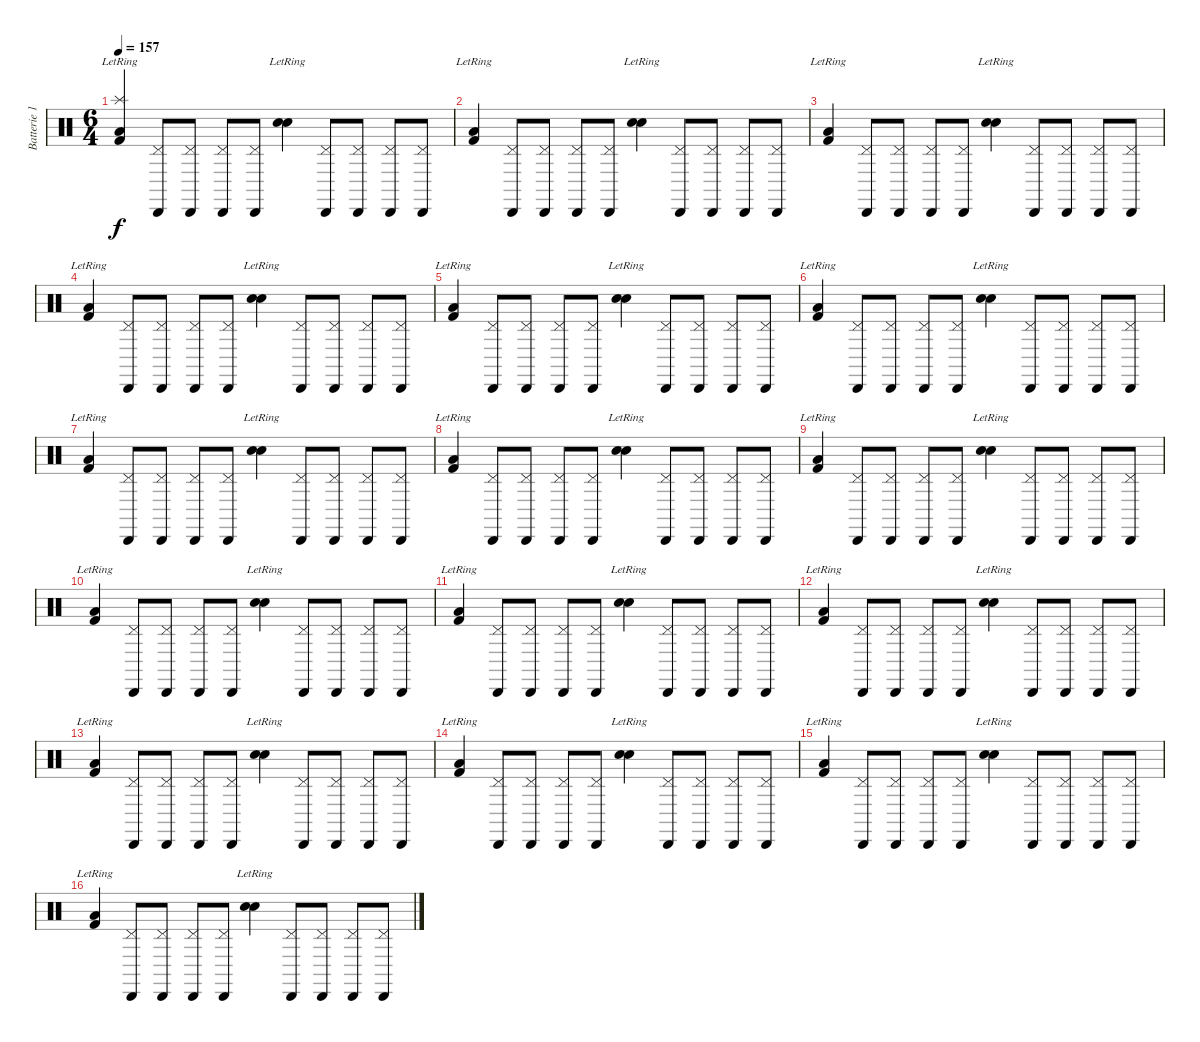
\track ("Batterie 1" "Batterie 1") {instrument percussion}
\staff {score}
\articulation defaults
\ts (6 4)
\tempo 157
\clef neutral
\ks c
("Kick (hit) 2"{lr} "Splash (hit)" "Low Floor Tom (hit)").4{dy f} ("Pedal Hi-Hat (hit)" "Cabasa (hit)").8 ("Pedal Hi-Hat (hit)" "Cabasa (hit)").8 ("Pedal Hi-Hat (hit)" "Cabasa (hit)").8 ("Pedal Hi-Hat (hit)" "Cabasa (hit)").8 ("Snare (hit) 2"{lr} "Electric Snare (hit)").4 ("Pedal Hi-Hat (hit)" "Cabasa (hit)").8 ("Pedal Hi-Hat (hit)" "Cabasa (hit)").8 ("Pedal Hi-Hat (hit)" "Cabasa (hit)").8 ("Pedal Hi-Hat (hit)" "Cabasa (hit)").8 |
("Kick (hit) 2"{lr} "Low Floor Tom (hit)").4 ("Pedal Hi-Hat (hit)" "Cabasa (hit)").8 ("Pedal Hi-Hat (hit)" "Cabasa (hit)").8 ("Pedal Hi-Hat (hit)" "Cabasa (hit)").8 ("Pedal Hi-Hat (hit)" "Cabasa (hit)").8 ("Snare (hit) 2"{lr} "Electric Snare (hit)").4 ("Pedal Hi-Hat (hit)" "Cabasa (hit)").8 ("Pedal Hi-Hat (hit)" "Cabasa (hit)").8 ("Pedal Hi-Hat (hit)" "Cabasa (hit)").8 ("Pedal Hi-Hat (hit)" "Cabasa (hit)").8 |
("Kick (hit) 2"{lr} "Low Floor Tom (hit)").4 ("Pedal Hi-Hat (hit)" "Cabasa (hit)").8 ("Pedal Hi-Hat (hit)" "Cabasa (hit)").8 ("Pedal Hi-Hat (hit)" "Cabasa (hit)").8 ("Pedal Hi-Hat (hit)" "Cabasa (hit)").8 ("Snare (hit) 2"{lr} "Electric Snare (hit)").4 ("Pedal Hi-Hat (hit)" "Cabasa (hit)").8 ("Pedal Hi-Hat (hit)" "Cabasa (hit)").8 ("Pedal Hi-Hat (hit)" "Cabasa (hit)").8 ("Pedal Hi-Hat (hit)" "Cabasa (hit)").8 |
("Kick (hit) 2"{lr} "Low Floor Tom (hit)").4 ("Pedal Hi-Hat (hit)" "Cabasa (hit)").8 ("Pedal Hi-Hat (hit)" "Cabasa (hit)").8 ("Pedal Hi-Hat (hit)" "Cabasa (hit)").8 ("Pedal Hi-Hat (hit)" "Cabasa (hit)").8 ("Snare (hit) 2"{lr} "Electric Snare (hit)").4 ("Pedal Hi-Hat (hit)" "Cabasa (hit)").8 ("Pedal Hi-Hat (hit)" "Cabasa (hit)").8 ("Pedal Hi-Hat (hit)" "Cabasa (hit)").8 ("Pedal Hi-Hat (hit)" "Cabasa (hit)").8 |
("Kick (hit) 2"{lr} "Low Floor Tom (hit)").4 ("Pedal Hi-Hat (hit)" "Cabasa (hit)").8 ("Pedal Hi-Hat (hit)" "Cabasa (hit)").8 ("Pedal Hi-Hat (hit)" "Cabasa (hit)").8 ("Pedal Hi-Hat (hit)" "Cabasa (hit)").8 ("Snare (hit) 2"{lr} "Electric Snare (hit)").4 ("Pedal Hi-Hat (hit)" "Cabasa (hit)").8 ("Pedal Hi-Hat (hit)" "Cabasa (hit)").8 ("Pedal Hi-Hat (hit)" "Cabasa (hit)").8 ("Pedal Hi-Hat (hit)" "Cabasa (hit)").8 |
("Kick (hit) 2"{lr} "Low Floor Tom (hit)").4 ("Pedal Hi-Hat (hit)" "Cabasa (hit)").8 ("Pedal Hi-Hat (hit)" "Cabasa (hit)").8 ("Pedal Hi-Hat (hit)" "Cabasa (hit)").8 ("Pedal Hi-Hat (hit)" "Cabasa (hit)").8 ("Snare (hit) 2"{lr} "Electric Snare (hit)").4 ("Pedal Hi-Hat (hit)" "Cabasa (hit)").8 ("Pedal Hi-Hat (hit)" "Cabasa (hit)").8 ("Pedal Hi-Hat (hit)" "Cabasa (hit)").8 ("Pedal Hi-Hat (hit)" "Cabasa (hit)").8 |
("Kick (hit) 2"{lr} "Low Floor Tom (hit)").4 ("Pedal Hi-Hat (hit)" "Cabasa (hit)").8 ("Pedal Hi-Hat (hit)" "Cabasa (hit)").8 ("Pedal Hi-Hat (hit)" "Cabasa (hit)").8 ("Pedal Hi-Hat (hit)" "Cabasa (hit)").8 ("Snare (hit) 2"{lr} "Electric Snare (hit)").4 ("Pedal Hi-Hat (hit)" "Cabasa (hit)").8 ("Pedal Hi-Hat (hit)" "Cabasa (hit)").8 ("Pedal Hi-Hat (hit)" "Cabasa (hit)").8 ("Pedal Hi-Hat (hit)" "Cabasa (hit)").8 |
("Kick (hit) 2"{lr} "Low Floor Tom (hit)").4 ("Pedal Hi-Hat (hit)" "Cabasa (hit)").8 ("Pedal Hi-Hat (hit)" "Cabasa (hit)").8 ("Pedal Hi-Hat (hit)" "Cabasa (hit)").8 ("Pedal Hi-Hat (hit)" "Cabasa (hit)").8 ("Snare (hit) 2"{lr} "Electric Snare (hit)").4 ("Pedal Hi-Hat (hit)" "Cabasa (hit)").8 ("Pedal Hi-Hat (hit)" "Cabasa (hit)").8 ("Pedal Hi-Hat (hit)" "Cabasa (hit)").8 ("Pedal Hi-Hat (hit)" "Cabasa (hit)").8 |
("Kick (hit) 2"{lr} "Low Floor Tom (hit)").4 ("Pedal Hi-Hat (hit)" "Cabasa (hit)").8 ("Pedal Hi-Hat (hit)" "Cabasa (hit)").8 ("Pedal Hi-Hat (hit)" "Cabasa (hit)").8 ("Pedal Hi-Hat (hit)" "Cabasa (hit)").8 ("Snare (hit) 2"{lr} "Electric Snare (hit)").4 ("Pedal Hi-Hat (hit)" "Cabasa (hit)").8 ("Pedal Hi-Hat (hit)" "Cabasa (hit)").8 ("Pedal Hi-Hat (hit)" "Cabasa (hit)").8 ("Pedal Hi-Hat (hit)" "Cabasa (hit)").8 |
("Kick (hit) 2"{lr} "Low Floor Tom (hit)").4 ("Pedal Hi-Hat (hit)" "Cabasa (hit)").8 ("Pedal Hi-Hat (hit)" "Cabasa (hit)").8 ("Pedal Hi-Hat (hit)" "Cabasa (hit)").8 ("Pedal Hi-Hat (hit)" "Cabasa (hit)").8 ("Snare (hit) 2"{lr} "Electric Snare (hit)").4 ("Pedal Hi-Hat (hit)" "Cabasa (hit)").8 ("Pedal Hi-Hat (hit)" "Cabasa (hit)").8 ("Pedal Hi-Hat (hit)" "Cabasa (hit)").8 ("Pedal Hi-Hat (hit)" "Cabasa (hit)").8 |
("Kick (hit) 2"{lr} "Low Floor Tom (hit)").4 ("Pedal Hi-Hat (hit)" "Cabasa (hit)").8 ("Pedal Hi-Hat (hit)" "Cabasa (hit)").8 ("Pedal Hi-Hat (hit)" "Cabasa (hit)").8 ("Pedal Hi-Hat (hit)" "Cabasa (hit)").8 ("Snare (hit) 2"{lr} "Electric Snare (hit)").4 ("Pedal Hi-Hat (hit)" "Cabasa (hit)").8 ("Pedal Hi-Hat (hit)" "Cabasa (hit)").8 ("Pedal Hi-Hat (hit)" "Cabasa (hit)").8 ("Pedal Hi-Hat (hit)" "Cabasa (hit)").8 |
("Kick (hit) 2"{lr} "Low Floor Tom (hit)").4 ("Pedal Hi-Hat (hit)" "Cabasa (hit)").8 ("Pedal Hi-Hat (hit)" "Cabasa (hit)").8 ("Pedal Hi-Hat (hit)" "Cabasa (hit)").8 ("Pedal Hi-Hat (hit)" "Cabasa (hit)").8 ("Snare (hit) 2"{lr} "Electric Snare (hit)").4 ("Pedal Hi-Hat (hit)" "Cabasa (hit)").8 ("Pedal Hi-Hat (hit)" "Cabasa (hit)").8 ("Pedal Hi-Hat (hit)" "Cabasa (hit)").8 ("Pedal Hi-Hat (hit)" "Cabasa (hit)").8 |
("Kick (hit) 2"{lr} "Low Floor Tom (hit)").4 ("Pedal Hi-Hat (hit)" "Cabasa (hit)").8 ("Pedal Hi-Hat (hit)" "Cabasa (hit)").8 ("Pedal Hi-Hat (hit)" "Cabasa (hit)").8 ("Pedal Hi-Hat (hit)" "Cabasa (hit)").8 ("Snare (hit) 2"{lr} "Electric Snare (hit)").4 ("Pedal Hi-Hat (hit)" "Cabasa (hit)").8 ("Pedal Hi-Hat (hit)" "Cabasa (hit)").8 ("Pedal Hi-Hat (hit)" "Cabasa (hit)").8 ("Pedal Hi-Hat (hit)" "Cabasa (hit)").8 |
("Kick (hit) 2"{lr} "Low Floor Tom (hit)").4 ("Pedal Hi-Hat (hit)" "Cabasa (hit)").8 ("Pedal Hi-Hat (hit)" "Cabasa (hit)").8 ("Pedal Hi-Hat (hit)" "Cabasa (hit)").8 ("Pedal Hi-Hat (hit)" "Cabasa (hit)").8 ("Snare (hit) 2"{lr} "Electric Snare (hit)").4 ("Pedal Hi-Hat (hit)" "Cabasa (hit)").8 ("Pedal Hi-Hat (hit)" "Cabasa (hit)").8 ("Pedal Hi-Hat (hit)" "Cabasa (hit)").8 ("Pedal Hi-Hat (hit)" "Cabasa (hit)").8 |
("Kick (hit) 2"{lr} "Low Floor Tom (hit)").4 ("Pedal Hi-Hat (hit)" "Cabasa (hit)").8 ("Pedal Hi-Hat (hit)" "Cabasa (hit)").8 ("Pedal Hi-Hat (hit)" "Cabasa (hit)").8 ("Pedal Hi-Hat (hit)" "Cabasa (hit)").8 ("Snare (hit) 2"{lr} "Electric Snare (hit)").4 ("Pedal Hi-Hat (hit)" "Cabasa (hit)").8 ("Pedal Hi-Hat (hit)" "Cabasa (hit)").8 ("Pedal Hi-Hat (hit)" "Cabasa (hit)").8 ("Pedal Hi-Hat (hit)" "Cabasa (hit)").8 |
("Kick (hit) 2"{lr} "Low Floor Tom (hit)").4 ("Pedal Hi-Hat (hit)" "Cabasa (hit)").8 ("Pedal Hi-Hat (hit)" "Cabasa (hit)").8 ("Pedal Hi-Hat (hit)" "Cabasa (hit)").8 ("Pedal Hi-Hat (hit)" "Cabasa (hit)").8 ("Snare (hit) 2"{lr} "Electric Snare (hit)").4 ("Pedal Hi-Hat (hit)" "Cabasa (hit)").8 ("Pedal Hi-Hat (hit)" "Cabasa (hit)").8 ("Pedal Hi-Hat (hit)" "Cabasa (hit)").8 ("Pedal Hi-Hat (hit)" "Cabasa (hit)").8
